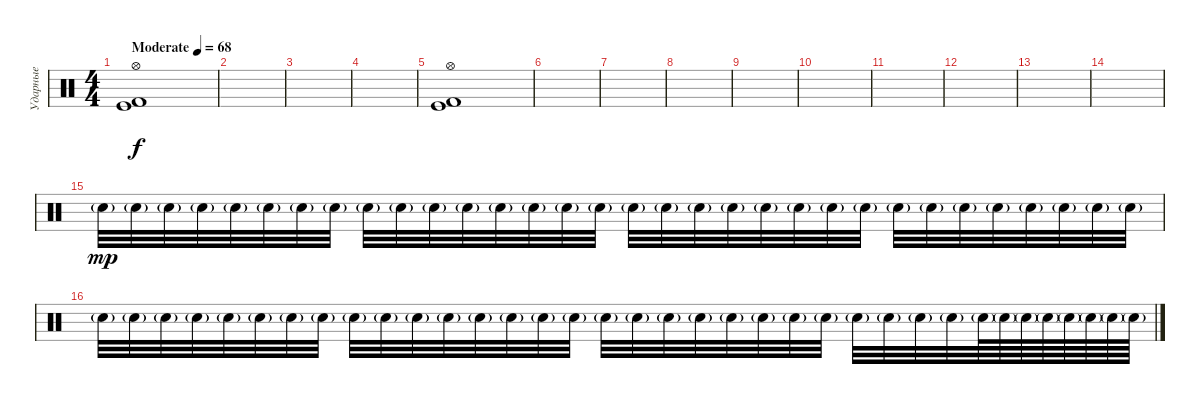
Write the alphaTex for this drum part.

\track ("Ударные" "Ударные") {instrument percussion}
\staff {score}
\articulation defaults
\ts (4 4)
\tempo (68 "Moderate")
\clef neutral
\ks c
("Kick (hit)" "Kick (hit) 2" "Hi-Hat (open)").1{dy f} |
|
|
|
("Kick (hit)" "Kick (hit) 2" "Hi-Hat (open)").1 |
|
|
|
|
|
|
|
|
|
"Snare (hit) 2"{g}.32{dy mp} "Snare (hit) 2"{g}.32 "Snare (hit) 2"{g}.32 "Snare (hit) 2"{g}.32 "Snare (hit) 2"{g}.32 "Snare (hit) 2"{g}.32 "Snare (hit) 2"{g}.32 "Snare (hit) 2"{g}.32 "Snare (hit) 2"{g}.32 "Snare (hit) 2"{g}.32 "Snare (hit) 2"{g}.32 "Snare (hit) 2"{g}.32 "Snare (hit) 2"{g}.32 "Snare (hit) 2"{g}.32 "Snare (hit) 2"{g}.32 "Snare (hit) 2"{g}.32 "Snare (hit) 2"{g}.32 "Snare (hit) 2"{g}.32 "Snare (hit) 2"{g}.32 "Snare (hit) 2"{g}.32 "Snare (hit) 2"{g}.32 "Snare (hit) 2"{g}.32 "Snare (hit) 2"{g}.32 "Snare (hit) 2"{g}.32 "Snare (hit) 2"{g}.32 "Snare (hit) 2"{g}.32 "Snare (hit) 2"{g}.32 "Snare (hit) 2"{g}.32 "Snare (hit) 2"{g}.32 "Snare (hit) 2"{g}.32 "Snare (hit) 2"{g}.32 "Snare (hit) 2"{g}.32 |
"Snare (hit) 2"{g}.32 "Snare (hit) 2"{g}.32 "Snare (hit) 2"{g}.32 "Snare (hit) 2"{g}.32 "Snare (hit) 2"{g}.32 "Snare (hit) 2"{g}.32 "Snare (hit) 2"{g}.32 "Snare (hit) 2"{g}.32 "Snare (hit) 2"{g}.32 "Snare (hit) 2"{g}.32 "Snare (hit) 2"{g}.32 "Snare (hit) 2"{g}.32 "Snare (hit) 2"{g}.32 "Snare (hit) 2"{g}.32 "Snare (hit) 2"{g}.32 "Snare (hit) 2"{g}.32 "Snare (hit) 2"{g}.32 "Snare (hit) 2"{g}.32 "Snare (hit) 2"{g}.32 "Snare (hit) 2"{g}.32 "Snare (hit) 2"{g}.32 "Snare (hit) 2"{g}.32 "Snare (hit) 2"{g}.32 "Snare (hit) 2"{g}.32 "Snare (hit) 2"{g}.32 "Snare (hit) 2"{g}.32 "Snare (hit) 2"{g}.32 "Snare (hit) 2"{g}.32 "Snare (hit) 2"{g}.64 "Snare (hit) 2"{g}.64 "Snare (hit) 2"{g}.64 "Snare (hit) 2"{g}.64 "Snare (hit) 2"{g}.64 "Snare (hit) 2"{g}.64 "Snare (hit) 2"{g}.64 "Snare (hit) 2"{g}.64
